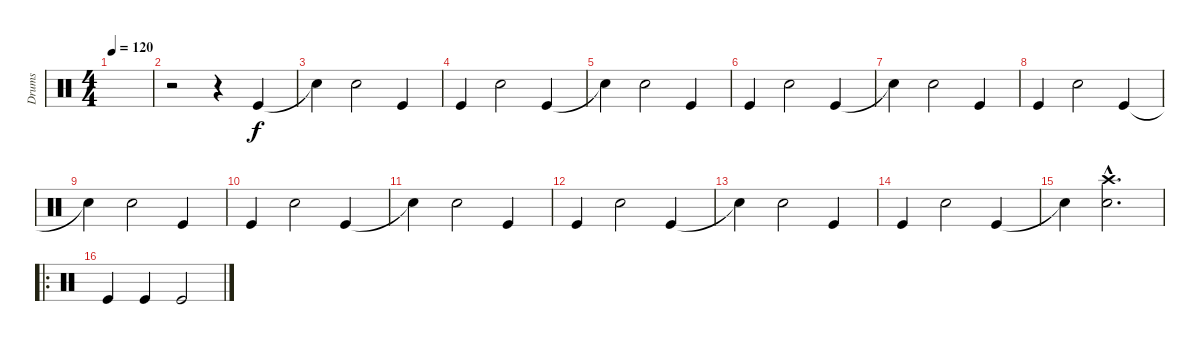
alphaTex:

\track ("Drums" "Drums") {instrument percussion}
\staff {score}
\articulation defaults
\ts (4 4)
\tempo 120
\clef neutral
\ks c
|
r.2 r.4 "Kick (hit)".4 |
"Snare (hit)"{t}.4 "Snare (hit) 2".2 "Kick (hit)".4 |
"Kick (hit)".4 "Snare (hit) 2".2 "Kick (hit)".4 |
"Snare (hit)"{t}.4 "Snare (hit) 2".2 "Kick (hit)".4 |
"Kick (hit)".4 "Snare (hit) 2".2 "Kick (hit)".4 |
"Snare (hit)"{t}.4 "Snare (hit) 2".2 "Kick (hit)".4 |
"Kick (hit)".4 "Snare (hit) 2".2 "Kick (hit)".4 |
"Snare (hit)"{t}.4 "Snare (hit) 2".2 "Kick (hit)".4 |
"Kick (hit)".4 "Snare (hit) 2".2 "Kick (hit)".4 |
"Snare (hit)"{t}.4 "Snare (hit) 2".2 "Kick (hit)".4 |
"Kick (hit)".4 "Snare (hit) 2".2 "Kick (hit)".4 |
"Snare (hit)"{t}.4 "Snare (hit) 2".2 "Kick (hit)".4 |
"Kick (hit)".4 "Snare (hit) 2".2 "Kick (hit)".4 |
"Snare (hit)"{t}.4 ("Electric Snare (hit)"{hac} "Crash high (hit)"{hac}).2{d} |
\ro "Kick (hit)".4 "Kick (hit)".4 "Kick (hit)".2
